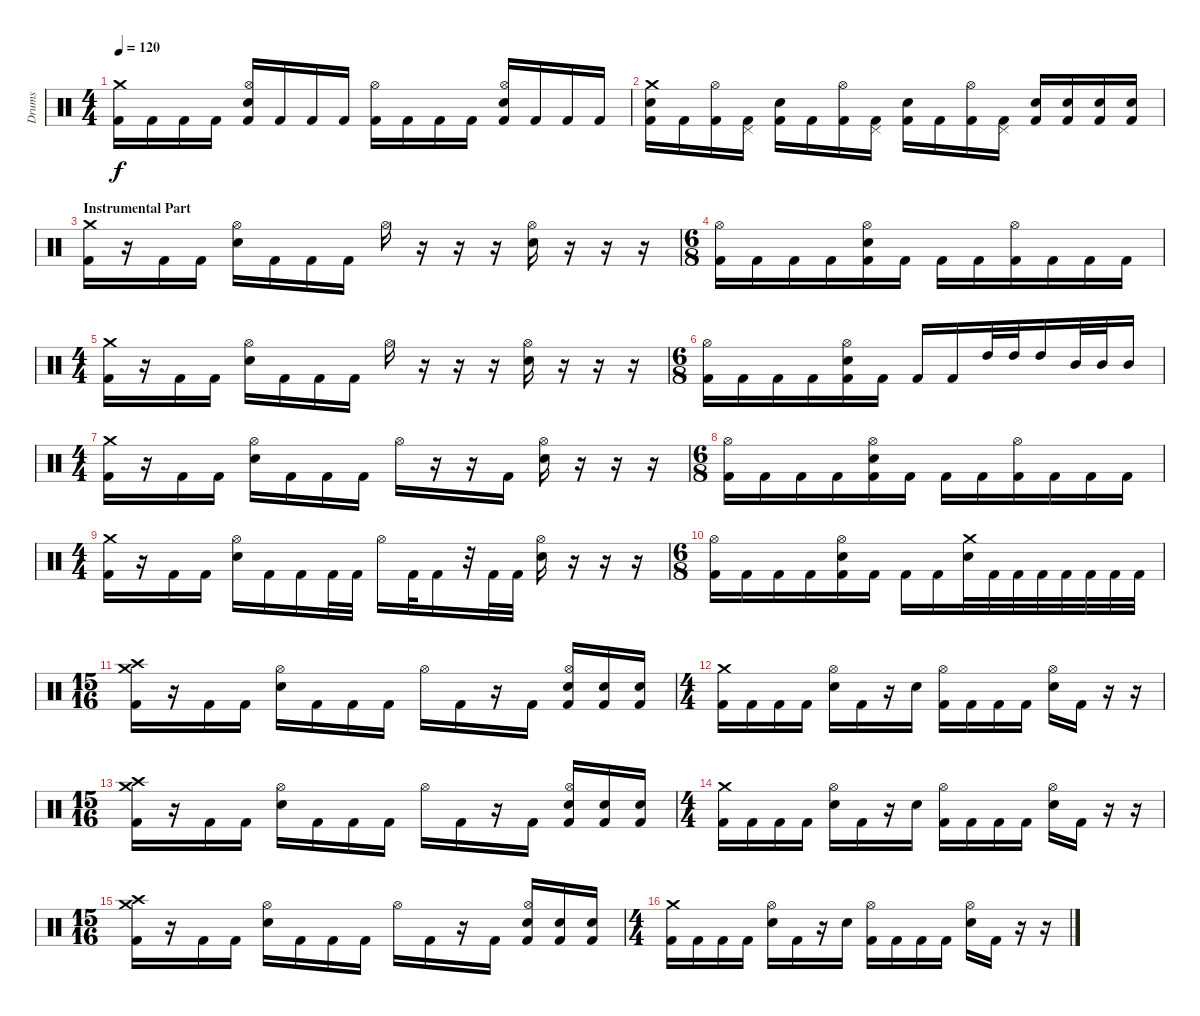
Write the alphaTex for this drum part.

\track ("Drums" "Drums") {instrument percussion}
\staff {score}
\articulation defaults
\ts (4 4)
\tempo 120
\clef neutral
\ks c
("Crash medium (hit)" "Kick (hit) 2").16{dy f} "Kick (hit) 2".16 "Kick (hit) 2".16 "Kick (hit) 2".16 ("Hi-Hat (open)" "Electric Snare (hit)" "Kick (hit) 2").16 "Kick (hit) 2".16 "Kick (hit) 2".16 "Kick (hit) 2".16 ("Hi-Hat (open)" "Kick (hit) 2").16 "Kick (hit) 2".16 "Kick (hit) 2".16 "Kick (hit) 2".16 ("Hi-Hat (open)" "Electric Snare (hit)" "Kick (hit) 2").16 "Kick (hit) 2".16 "Kick (hit) 2".16 "Kick (hit) 2".16 |
("Crash medium (hit)" "Electric Snare (hit)" "Kick (hit) 2").16 "Kick (hit) 2".16 ("Hi-Hat (open)" "Kick (hit) 2").16 ("Pedal Hi-Hat (hit)" "Kick (hit) 2").16 ("Electric Snare (hit)" "Kick (hit) 2").16 "Kick (hit) 2".16 ("Hi-Hat (open)" "Kick (hit) 2").16 ("Pedal Hi-Hat (hit)" "Kick (hit) 2").16 ("Electric Snare (hit)" "Kick (hit) 2").16 "Kick (hit) 2".16 ("Hi-Hat (open)" "Kick (hit) 2").16 ("Pedal Hi-Hat (hit)" "Kick (hit) 2").16 ("Electric Snare (hit)" "Kick (hit) 2").16 ("Electric Snare (hit)" "Kick (hit) 2").16 ("Electric Snare (hit)" "Kick (hit) 2").16 ("Electric Snare (hit)" "Kick (hit) 2").16 |
\section ("" "Instrumental Part")
("Crash medium (hit)" "Kick (hit) 2").16 r.16 "Kick (hit) 2".16 "Kick (hit) 2".16 ("Hi-Hat (open)" "Electric Snare (hit)").16 "Kick (hit) 2".16 "Kick (hit) 2".16 "Kick (hit) 2".16 "Hi-Hat (open)".16 r.16 r.16 r.16 ("Hi-Hat (open)" "Electric Snare (hit)").16 r.16 r.16 r.16 |
\ts (6 8)
("Hi-Hat (open)" "Kick (hit) 2").16 "Kick (hit) 2".16 "Kick (hit) 2".16 "Kick (hit) 2".16 ("Hi-Hat (open)" "Electric Snare (hit)" "Kick (hit) 2").16 "Kick (hit) 2".16 "Kick (hit) 2".16 "Kick (hit) 2".16 ("Hi-Hat (open)" "Kick (hit) 2").16 "Kick (hit) 2".16 "Kick (hit) 2".16 "Kick (hit) 2".16 |
\ts (4 4)
("Crash medium (hit)" "Kick (hit) 2").16 r.16 "Kick (hit) 2".16 "Kick (hit) 2".16 ("Hi-Hat (open)" "Electric Snare (hit)").16 "Kick (hit) 2".16 "Kick (hit) 2".16 "Kick (hit) 2".16 "Hi-Hat (open)".16 r.16 r.16 r.16 ("Hi-Hat (open)" "Electric Snare (hit)").16 r.16 r.16 r.16 |
\ts (6 8)
("Hi-Hat (open)" "Kick (hit) 2").16 "Kick (hit) 2".16 "Kick (hit) 2".16 "Kick (hit) 2".16 ("Hi-Hat (open)" "Electric Snare (hit)" "Kick (hit) 2").16 "Kick (hit) 2".16 "Kick (hit) 2".16 "Kick (hit) 2".16 "High Tom (hit)".32 "High Tom (hit)".32 "High Tom (hit)".16 "Mid Tom (hit)".32 "Mid Tom (hit)".32 "Mid Tom (hit)".16 |
\ts (4 4)
("Crash medium (hit)" "Kick (hit) 2").16 r.16 "Kick (hit) 2".16 "Kick (hit) 2".16 ("Hi-Hat (open)" "Electric Snare (hit)").16 "Kick (hit) 2".16 "Kick (hit) 2".16 "Kick (hit) 2".16 "Hi-Hat (open)".16 r.16 r.16 "Kick (hit) 2".16 ("Hi-Hat (open)" "Electric Snare (hit)").16 r.16 r.16 r.16 |
\ts (6 8)
("Hi-Hat (open)" "Kick (hit) 2").16 "Kick (hit) 2".16 "Kick (hit) 2".16 "Kick (hit) 2".16 ("Hi-Hat (open)" "Electric Snare (hit)" "Kick (hit) 2").16 "Kick (hit) 2".16 "Kick (hit) 2".16 "Kick (hit) 2".16 ("Hi-Hat (open)" "Kick (hit) 2").16 "Kick (hit) 2".16 "Kick (hit) 2".16 "Kick (hit) 2".16 |
\ts (4 4)
("Crash medium (hit)" "Kick (hit) 2").16 r.16 "Kick (hit) 2".16 "Kick (hit) 2".16 ("Hi-Hat (open)" "Electric Snare (hit)").16 "Kick (hit) 2".16 "Kick (hit) 2".16 "Kick (hit) 2".32 "Kick (hit) 2".32 "Hi-Hat (open)".16 "Kick (hit) 2".32 "Kick (hit) 2".16 r.32 "Kick (hit) 2".32 "Kick (hit) 2".32 ("Hi-Hat (open)" "Electric Snare (hit)").16 r.16 r.16 r.16 |
\ts (6 8)
("Hi-Hat (open)" "Kick (hit) 2").16 "Kick (hit) 2".16 "Kick (hit) 2".16 "Kick (hit) 2".16 ("Hi-Hat (open)" "Electric Snare (hit)" "Kick (hit) 2").16 "Kick (hit) 2".16 "Kick (hit) 2".16 "Kick (hit) 2".16 ("Crash medium (hit)" "Electric Snare (hit)").32 "Kick (hit) 2".32 "Kick (hit) 2".32 "Kick (hit) 2".32 "Kick (hit) 2".32 "Kick (hit) 2".32 "Kick (hit) 2".32 "Kick (hit) 2".32 |
\ts (15 16)
("Crash medium (hit)" "Crash high (hit)" "Kick (hit) 2").16 r.16 "Kick (hit) 2".16 "Kick (hit) 2".16 ("Hi-Hat (open)" "Electric Snare (hit)").16 "Kick (hit) 2".16 "Kick (hit) 2".16 "Kick (hit) 2".16 "Hi-Hat (open)".16 "Kick (hit) 2".16 r.16 "Kick (hit) 2".16 ("Hi-Hat (open)" "Electric Snare (hit)" "Kick (hit) 2").16 ("Electric Snare (hit)" "Kick (hit) 2").16 ("Electric Snare (hit)" "Kick (hit) 2").16 |
\ts (4 4)
("Crash medium (hit)" "Kick (hit) 2").16 "Kick (hit) 2".16 "Kick (hit) 2".16 "Kick (hit) 2".16 ("Hi-Hat (open)" "Electric Snare (hit)").16 "Kick (hit) 2".16 r.16 "Electric Snare (hit)".16 ("Hi-Hat (open)" "Kick (hit) 2").16 "Kick (hit) 2".16 "Kick (hit) 2".16 "Kick (hit) 2".16 ("Hi-Hat (open)" "Electric Snare (hit)").16 "Kick (hit) 2".16 r.16 r.16 |
\ts (15 16)
("Crash medium (hit)" "Crash high (hit)" "Kick (hit) 2").16 r.16 "Kick (hit) 2".16 "Kick (hit) 2".16 ("Hi-Hat (open)" "Electric Snare (hit)").16 "Kick (hit) 2".16 "Kick (hit) 2".16 "Kick (hit) 2".16 "Hi-Hat (open)".16 "Kick (hit) 2".16 r.16 "Kick (hit) 2".16 ("Hi-Hat (open)" "Electric Snare (hit)" "Kick (hit) 2").16 ("Electric Snare (hit)" "Kick (hit) 2").16 ("Electric Snare (hit)" "Kick (hit) 2").16 |
\ts (4 4)
("Crash medium (hit)" "Kick (hit) 2").16 "Kick (hit) 2".16 "Kick (hit) 2".16 "Kick (hit) 2".16 ("Hi-Hat (open)" "Electric Snare (hit)").16 "Kick (hit) 2".16 r.16 "Electric Snare (hit)".16 ("Hi-Hat (open)" "Kick (hit) 2").16 "Kick (hit) 2".16 "Kick (hit) 2".16 "Kick (hit) 2".16 ("Hi-Hat (open)" "Electric Snare (hit)").16 "Kick (hit) 2".16 r.16 r.16 |
\ts (15 16)
("Crash medium (hit)" "Crash high (hit)" "Kick (hit) 2").16 r.16 "Kick (hit) 2".16 "Kick (hit) 2".16 ("Hi-Hat (open)" "Electric Snare (hit)").16 "Kick (hit) 2".16 "Kick (hit) 2".16 "Kick (hit) 2".16 "Hi-Hat (open)".16 "Kick (hit) 2".16 r.16 "Kick (hit) 2".16 ("Hi-Hat (open)" "Electric Snare (hit)" "Kick (hit) 2").16 ("Electric Snare (hit)" "Kick (hit) 2").16 ("Electric Snare (hit)" "Kick (hit) 2").16 |
\ts (4 4)
("Crash medium (hit)" "Kick (hit) 2").16 "Kick (hit) 2".16 "Kick (hit) 2".16 "Kick (hit) 2".16 ("Hi-Hat (open)" "Electric Snare (hit)").16 "Kick (hit) 2".16 r.16 "Electric Snare (hit)".16 ("Hi-Hat (open)" "Kick (hit) 2").16 "Kick (hit) 2".16 "Kick (hit) 2".16 "Kick (hit) 2".16 ("Hi-Hat (open)" "Electric Snare (hit)").16 "Kick (hit) 2".16 r.16 r.16
